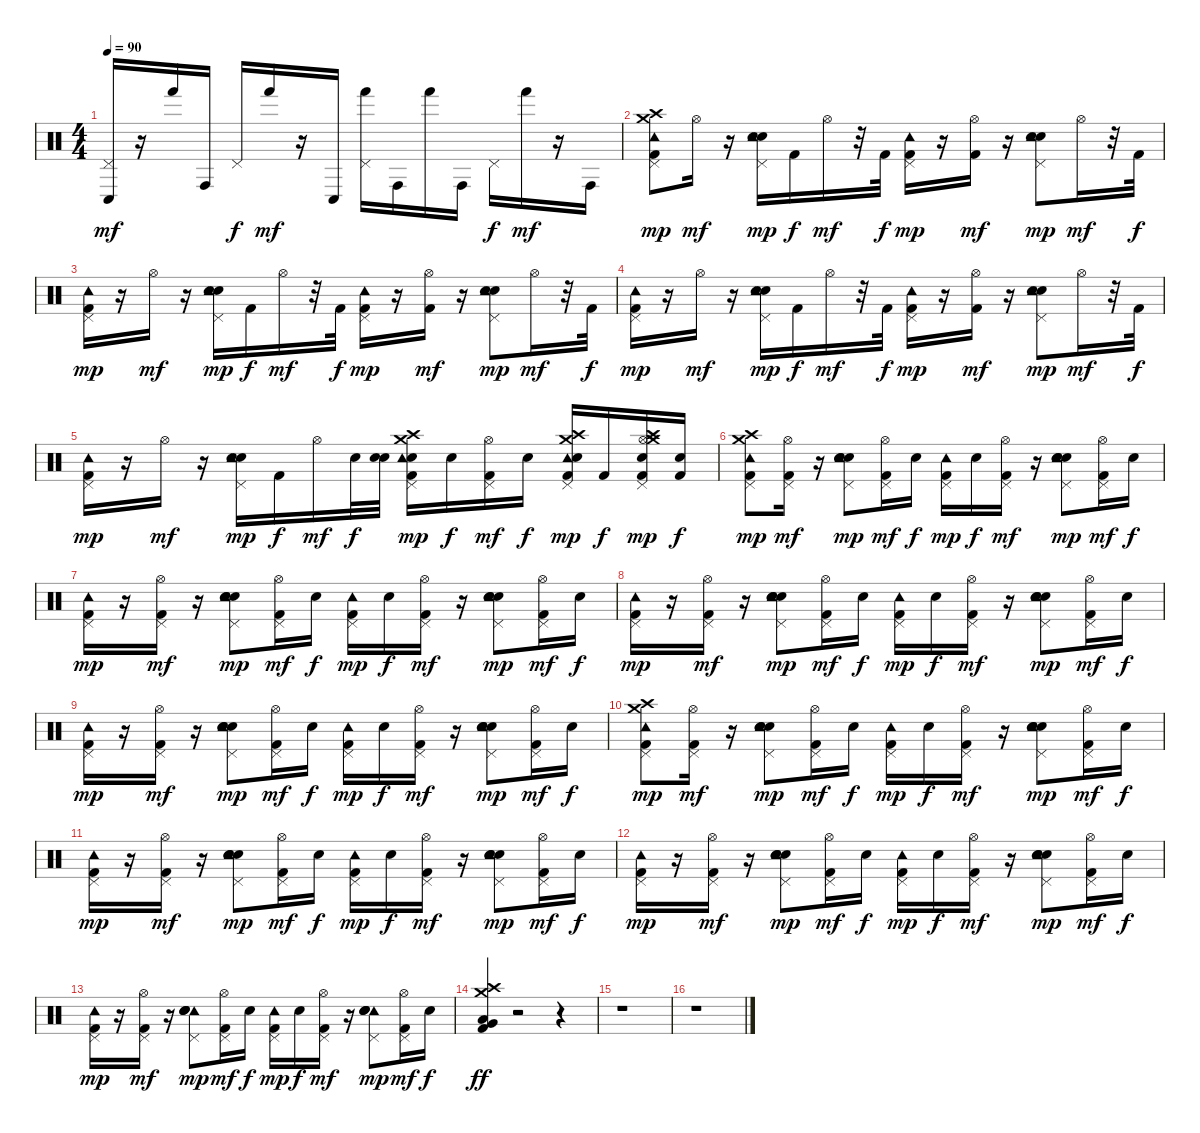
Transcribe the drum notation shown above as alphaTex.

\track "" {instrument percussion}
\staff {score}
\articulation defaults
\ts (4 4)
\tempo 90
\clef neutral
\ks c
("Conga low (hit)" "Pedal Hi-Hat (hit)").16{dy mf} r.16 "Hand (hit)".16 "Conga high (hit)".16 "Pedal Hi-Hat (hit)".16{dy f} "Hand (hit)".16{dy mf} r.16 "Conga low (hit)".16 ("Hand (hit)" "Pedal Hi-Hat (hit)").16 "Conga high (hit)".16 "Hand (hit)".16 "Conga high (hit)".16 "Pedal Hi-Hat (hit)".16{dy f} "Hand (hit)".16{dy mf} r.16 "Conga high (hit)".16 |
("Kick (hit) 2" "Tambourine (hit)" "Crash high (hit)" "Crash medium (hit)" "Pedal Hi-Hat (hit)").8{dy mp} "Hi-Hat (open)".16{dy mf} r.16 ("Snare (hit) 2" "Hand Clap (hit)" "Tambourine (hit)" "Pedal Hi-Hat (hit)").16{dy mp} "Kick (hit) 2".16{dy f} "Hi-Hat (open)".16{dy mf} r.32 "Kick (hit) 2".32{dy f} ("Kick (hit) 2" "Tambourine (hit)" "Pedal Hi-Hat (hit)").16{dy mp} r.16 ("Kick (hit) 2" "Hi-Hat (open)").16{dy mf} r.16 ("Snare (hit) 2" "Hand Clap (hit)" "Tambourine (hit)" "Pedal Hi-Hat (hit)").8{dy mp} "Hi-Hat (open)".16{dy mf} r.32 "Kick (hit) 2".32{dy f} |
("Kick (hit) 2" "Tambourine (hit)" "Pedal Hi-Hat (hit)").16{dy mp} r.16 "Hi-Hat (open)".16{dy mf} r.16 ("Snare (hit) 2" "Hand Clap (hit)" "Tambourine (hit)" "Pedal Hi-Hat (hit)").16{dy mp} "Kick (hit) 2".16{dy f} "Hi-Hat (open)".16{dy mf} r.32 "Kick (hit) 2".32{dy f} ("Kick (hit) 2" "Tambourine (hit)" "Pedal Hi-Hat (hit)").16{dy mp} r.16 ("Kick (hit) 2" "Hi-Hat (open)").16{dy mf} r.16 ("Snare (hit) 2" "Hand Clap (hit)" "Tambourine (hit)" "Pedal Hi-Hat (hit)").8{dy mp} "Hi-Hat (open)".16{dy mf} r.32 "Kick (hit) 2".32{dy f} |
("Kick (hit) 2" "Tambourine (hit)" "Pedal Hi-Hat (hit)").16{dy mp} r.16 "Hi-Hat (open)".16{dy mf} r.16 ("Snare (hit) 2" "Hand Clap (hit)" "Tambourine (hit)" "Pedal Hi-Hat (hit)").16{dy mp} "Kick (hit) 2".16{dy f} "Hi-Hat (open)".16{dy mf} r.32 "Kick (hit) 2".32{dy f} ("Kick (hit) 2" "Tambourine (hit)" "Pedal Hi-Hat (hit)").16{dy mp} r.16 ("Kick (hit) 2" "Hi-Hat (open)").16{dy mf} r.16 ("Snare (hit) 2" "Hand Clap (hit)" "Tambourine (hit)" "Pedal Hi-Hat (hit)").8{dy mp} "Hi-Hat (open)".16{dy mf} r.32 "Kick (hit) 2".32{dy f} |
("Kick (hit) 2" "Tambourine (hit)" "Pedal Hi-Hat (hit)").16{dy mp} r.16 "Hi-Hat (open)".16{dy mf} r.16 ("Snare (hit) 2" "Hand Clap (hit)" "Tambourine (hit)" "Pedal Hi-Hat (hit)").16{dy mp} "Kick (hit) 2".16{dy f} "Hi-Hat (open)".16{dy mf} "Electric Snare (hit)".32{dy f} ("Electric Snare (hit)" "Electric Snare (hit)").32 ("Kick (hit) 2" "Crash high (hit)" "Crash medium (hit)" "Electric Snare (hit)" "Tambourine (hit)" "Pedal Hi-Hat (hit)").16{dy mp} "Electric Snare (hit)".16{dy f} ("Kick (hit) 2" "Hi-Hat (open)" "Pedal Hi-Hat (hit)").16{dy mf} "Electric Snare (hit)".16{dy f} ("Kick (hit) 2" "Crash high (hit)" "Crash medium (hit)" "Tambourine (hit)" "Pedal Hi-Hat (hit)" "Electric Snare (hit)").16{dy mp} "Kick (hit) 2".16{dy f} ("Kick (hit) 2" "Hi-Hat (open)" "Pedal Hi-Hat (hit)" "Crash high (hit)" "Crash medium (hit)" "Electric Snare (hit)").16{dy mp} ("Kick (hit) 2" "Electric Snare (hit)").16{dy f} |
("Kick (hit) 2" "Tambourine (hit)" "Crash high (hit)" "Crash medium (hit)" "Pedal Hi-Hat (hit)").8{dy mp} ("Kick (hit) 2" "Hi-Hat (open)" "Pedal Hi-Hat (hit)").16{dy mf} r.16 ("Electric Snare (hit)" "Snare (hit) 2" "Hand Clap (hit)" "Tambourine (hit)" "Pedal Hi-Hat (hit)").8{dy mp} ("Kick (hit) 2" "Hi-Hat (open)" "Pedal Hi-Hat (hit)").16{dy mf} "Snare (hit) 2".16{dy f} ("Kick (hit) 2" "Tambourine (hit)" "Pedal Hi-Hat (hit)").16{dy mp} "Snare (hit) 2".16{dy f} ("Kick (hit) 2" "Hi-Hat (open)" "Pedal Hi-Hat (hit)").16{dy mf} r.16 ("Electric Snare (hit)" "Snare (hit) 2" "Hand Clap (hit)" "Tambourine (hit)" "Pedal Hi-Hat (hit)").8{dy mp} ("Kick (hit) 2" "Hi-Hat (open)" "Pedal Hi-Hat (hit)").16{dy mf} "Snare (hit) 2".16{dy f} |
("Kick (hit) 2" "Tambourine (hit)" "Pedal Hi-Hat (hit)").16{dy mp} r.16 ("Kick (hit) 2" "Hi-Hat (open)" "Pedal Hi-Hat (hit)").16{dy mf} r.16 ("Electric Snare (hit)" "Hand Clap (hit)" "Snare (hit) 2" "Tambourine (hit)" "Pedal Hi-Hat (hit)").8{dy mp} ("Kick (hit) 2" "Hi-Hat (open)" "Pedal Hi-Hat (hit)").16{dy mf} "Snare (hit) 2".16{dy f} ("Kick (hit) 2" "Tambourine (hit)" "Pedal Hi-Hat (hit)").16{dy mp} "Snare (hit) 2".16{dy f} ("Kick (hit) 2" "Hi-Hat (open)" "Pedal Hi-Hat (hit)").16{dy mf} r.16 ("Electric Snare (hit)" "Hand Clap (hit)" "Snare (hit) 2" "Tambourine (hit)" "Pedal Hi-Hat (hit)").8{dy mp} ("Kick (hit) 2" "Hi-Hat (open)" "Pedal Hi-Hat (hit)").16{dy mf} "Snare (hit) 2".16{dy f} |
("Kick (hit) 2" "Tambourine (hit)" "Pedal Hi-Hat (hit)").16{dy mp} r.16 ("Kick (hit) 2" "Hi-Hat (open)" "Pedal Hi-Hat (hit)").16{dy mf} r.16 ("Electric Snare (hit)" "Hand Clap (hit)" "Snare (hit) 2" "Tambourine (hit)" "Pedal Hi-Hat (hit)").8{dy mp} ("Kick (hit) 2" "Hi-Hat (open)" "Pedal Hi-Hat (hit)").16{dy mf} "Snare (hit) 2".16{dy f} ("Kick (hit) 2" "Tambourine (hit)" "Pedal Hi-Hat (hit)").16{dy mp} "Snare (hit) 2".16{dy f} ("Kick (hit) 2" "Hi-Hat (open)" "Pedal Hi-Hat (hit)").16{dy mf} r.16 ("Electric Snare (hit)" "Hand Clap (hit)" "Snare (hit) 2" "Tambourine (hit)" "Pedal Hi-Hat (hit)").8{dy mp} ("Kick (hit) 2" "Hi-Hat (open)" "Pedal Hi-Hat (hit)").16{dy mf} "Snare (hit) 2".16{dy f} |
("Kick (hit) 2" "Tambourine (hit)" "Pedal Hi-Hat (hit)").16{dy mp} r.16 ("Kick (hit) 2" "Hi-Hat (open)" "Pedal Hi-Hat (hit)").16{dy mf} r.16 ("Electric Snare (hit)" "Hand Clap (hit)" "Snare (hit) 2" "Tambourine (hit)" "Pedal Hi-Hat (hit)").8{dy mp} ("Kick (hit) 2" "Hi-Hat (open)" "Pedal Hi-Hat (hit)").16{dy mf} "Snare (hit) 2".16{dy f} ("Kick (hit) 2" "Tambourine (hit)" "Pedal Hi-Hat (hit)").16{dy mp} "Snare (hit) 2".16{dy f} ("Kick (hit) 2" "Hi-Hat (open)" "Pedal Hi-Hat (hit)").16{dy mf} r.16 ("Electric Snare (hit)" "Hand Clap (hit)" "Snare (hit) 2" "Tambourine (hit)" "Pedal Hi-Hat (hit)").8{dy mp} ("Kick (hit) 2" "Hi-Hat (open)" "Pedal Hi-Hat (hit)").16{dy mf} "Snare (hit) 2".16{dy f} |
("Kick (hit) 2" "Tambourine (hit)" "Crash high (hit)" "Crash medium (hit)" "Pedal Hi-Hat (hit)").8{dy mp} ("Kick (hit) 2" "Hi-Hat (open)" "Pedal Hi-Hat (hit)").16{dy mf} r.16 ("Electric Snare (hit)" "Snare (hit) 2" "Hand Clap (hit)" "Tambourine (hit)" "Pedal Hi-Hat (hit)").8{dy mp} ("Kick (hit) 2" "Hi-Hat (open)" "Pedal Hi-Hat (hit)").16{dy mf} "Snare (hit) 2".16{dy f} ("Kick (hit) 2" "Tambourine (hit)" "Pedal Hi-Hat (hit)").16{dy mp} "Snare (hit) 2".16{dy f} ("Kick (hit) 2" "Hi-Hat (open)" "Pedal Hi-Hat (hit)").16{dy mf} r.16 ("Electric Snare (hit)" "Snare (hit) 2" "Hand Clap (hit)" "Tambourine (hit)" "Pedal Hi-Hat (hit)").8{dy mp} ("Kick (hit) 2" "Hi-Hat (open)" "Pedal Hi-Hat (hit)").16{dy mf} "Snare (hit) 2".16{dy f} |
("Kick (hit) 2" "Tambourine (hit)" "Pedal Hi-Hat (hit)").16{dy mp} r.16 ("Kick (hit) 2" "Hi-Hat (open)" "Pedal Hi-Hat (hit)").16{dy mf} r.16 ("Electric Snare (hit)" "Hand Clap (hit)" "Snare (hit) 2" "Tambourine (hit)" "Pedal Hi-Hat (hit)").8{dy mp} ("Kick (hit) 2" "Hi-Hat (open)" "Pedal Hi-Hat (hit)").16{dy mf} "Snare (hit) 2".16{dy f} ("Kick (hit) 2" "Tambourine (hit)" "Pedal Hi-Hat (hit)").16{dy mp} "Snare (hit) 2".16{dy f} ("Kick (hit) 2" "Hi-Hat (open)" "Pedal Hi-Hat (hit)").16{dy mf} r.16 ("Electric Snare (hit)" "Hand Clap (hit)" "Snare (hit) 2" "Tambourine (hit)" "Pedal Hi-Hat (hit)").8{dy mp} ("Kick (hit) 2" "Hi-Hat (open)" "Pedal Hi-Hat (hit)").16{dy mf} "Snare (hit) 2".16{dy f} |
("Tambourine (hit)" "Pedal Hi-Hat (hit)" "Kick (hit) 2").16{dy mp} r.16 ("Kick (hit) 2" "Hi-Hat (open)" "Pedal Hi-Hat (hit)").16{dy mf} r.16 ("Electric Snare (hit)" "Hand Clap (hit)" "Snare (hit) 2" "Tambourine (hit)" "Pedal Hi-Hat (hit)").8{dy mp} ("Kick (hit) 2" "Hi-Hat (open)" "Pedal Hi-Hat (hit)").16{dy mf} "Snare (hit) 2".16{dy f} ("Kick (hit) 2" "Tambourine (hit)" "Pedal Hi-Hat (hit)").16{dy mp} "Snare (hit) 2".16{dy f} ("Kick (hit) 2" "Hi-Hat (open)" "Pedal Hi-Hat (hit)").16{dy mf} r.16 ("Electric Snare (hit)" "Hand Clap (hit)" "Snare (hit) 2" "Tambourine (hit)" "Pedal Hi-Hat (hit)").8{dy mp} ("Kick (hit) 2" "Hi-Hat (open)" "Pedal Hi-Hat (hit)").16{dy mf} "Snare (hit) 2".16{dy f} |
("Tambourine (hit)" "Pedal Hi-Hat (hit)" "Kick (hit) 2").16{dy mp} r.16 ("Hi-Hat (open)" "Pedal Hi-Hat (hit)" "Kick (hit) 2").16{dy mf} r.16 ("Tambourine (hit)" "Pedal Hi-Hat (hit)" "Electric Snare (hit)" "Hand Clap (hit)" "Snare (hit) 2").8{dy mp} ("Hi-Hat (open)" "Pedal Hi-Hat (hit)" "Kick (hit) 2").16{dy mf} "Snare (hit) 2".16{dy f} ("Tambourine (hit)" "Pedal Hi-Hat (hit)" "Kick (hit) 2").16{dy mp} "Snare (hit) 2".16{dy f} ("Hi-Hat (open)" "Pedal Hi-Hat (hit)" "Kick (hit) 2").16{dy mf} r.16 ("Tambourine (hit)" "Pedal Hi-Hat (hit)" "Electric Snare (hit)" "Hand Clap (hit)" "Snare (hit) 2").8{dy mp} ("Hi-Hat (open)" "Pedal Hi-Hat (hit)" "Kick (hit) 2").16{dy mf} "Snare (hit) 2".16{dy f} |
("Crash high (hit)" "Crash medium (hit)" "Low Tom (hit)" "Very Low Tom (hit)" "Kick (hit) 2").4{dy ff} r.2 r.4 |
r.1 |
r.1
